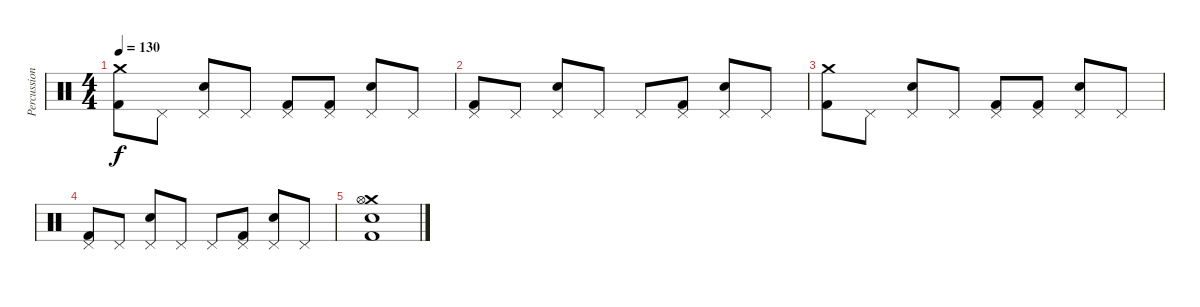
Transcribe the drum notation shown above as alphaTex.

\track ("Percussion" "Percussion") {instrument percussion}
\staff {score}
\articulation defaults
\ts (4 4)
\tempo 130
\clef neutral
\ks c
("Crash medium (hit)" "Kick (hit) 2").8{dy f} "Pedal Hi-Hat (hit)".8 ("Pedal Hi-Hat (hit)" "Snare (hit) 2").8 "Pedal Hi-Hat (hit)".8 ("Pedal Hi-Hat (hit)" "Kick (hit) 2").8 ("Pedal Hi-Hat (hit)" "Kick (hit) 2").8 ("Pedal Hi-Hat (hit)" "Snare (hit) 2").8 "Pedal Hi-Hat (hit)".8 |
("Pedal Hi-Hat (hit)" "Kick (hit) 2").8 "Pedal Hi-Hat (hit)".8 ("Pedal Hi-Hat (hit)" "Snare (hit) 2").8 "Pedal Hi-Hat (hit)".8 "Pedal Hi-Hat (hit)".8 ("Pedal Hi-Hat (hit)" "Kick (hit) 2").8 ("Pedal Hi-Hat (hit)" "Snare (hit) 2").8 "Pedal Hi-Hat (hit)".8 |
("Crash medium (hit)" "Kick (hit) 2").8 "Pedal Hi-Hat (hit)".8 ("Pedal Hi-Hat (hit)" "Snare (hit) 2").8 "Pedal Hi-Hat (hit)".8 ("Pedal Hi-Hat (hit)" "Kick (hit) 2").8 ("Pedal Hi-Hat (hit)" "Kick (hit) 2").8 ("Pedal Hi-Hat (hit)" "Snare (hit) 2").8 "Pedal Hi-Hat (hit)".8 |
("Pedal Hi-Hat (hit)" "Kick (hit) 2").8 "Pedal Hi-Hat (hit)".8 ("Pedal Hi-Hat (hit)" "Snare (hit) 2").8 "Pedal Hi-Hat (hit)".8 "Pedal Hi-Hat (hit)".8 ("Pedal Hi-Hat (hit)" "Kick (hit) 2").8 ("Pedal Hi-Hat (hit)" "Snare (hit) 2").8 "Pedal Hi-Hat (hit)".8 |
("Crash medium (hit)" "Hi-Hat (open)" "Snare (hit) 2" "Kick (hit) 2").1
